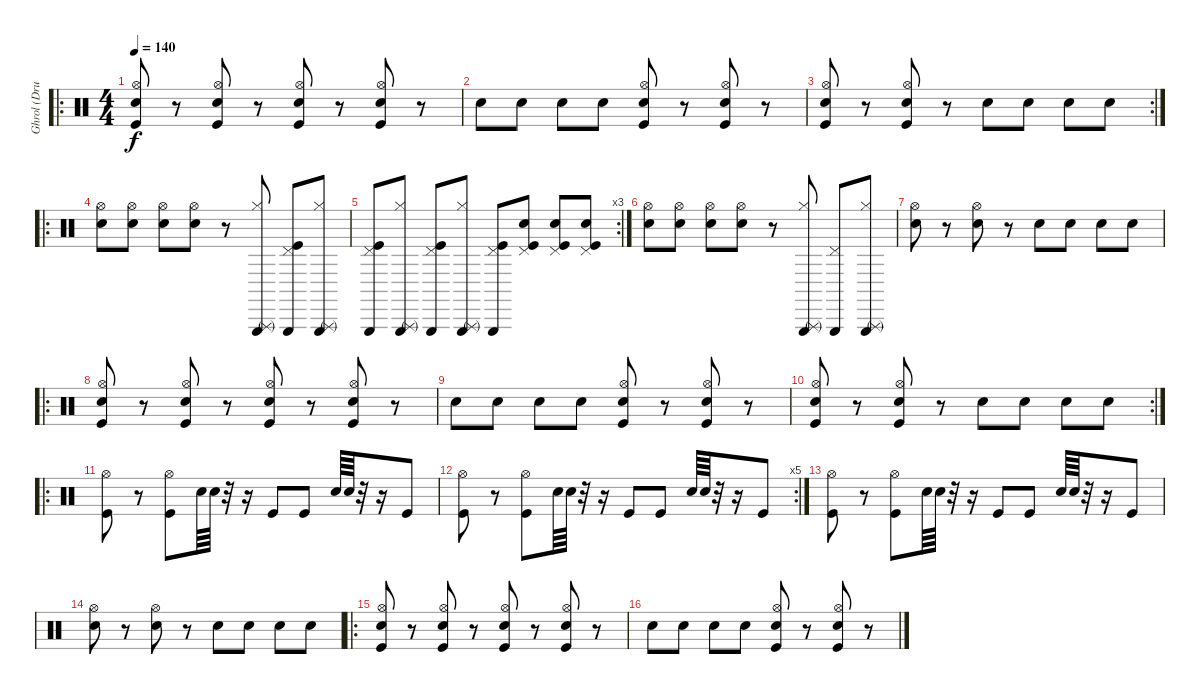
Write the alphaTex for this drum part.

\track ("Ghrol (Drums)" "Ghrol (Dru") {instrument percussion}
\staff {score}
\articulation defaults
\ro
\ts (4 4)
\tempo 140
\clef neutral
\ks c
("Snare (hit) 2" "Hi-Hat (open)" "Kick (hit)").8{dy f} r.8 ("Snare (hit) 2" "Hi-Hat (open)" "Kick (hit)").8 r.8 ("Snare (hit) 2" "Hi-Hat (open)" "Kick (hit)").8 r.8 ("Snare (hit) 2" "Hi-Hat (open)" "Kick (hit)").8 r.8 |
"Snare (hit) 2".8 "Snare (hit) 2".8 "Snare (hit) 2".8 "Snare (hit) 2".8 ("Snare (hit) 2" "Hi-Hat (open)" "Kick (hit)").8 r.8 ("Snare (hit) 2" "Hi-Hat (open)" "Kick (hit)").8 r.8 |
\rc 2
("Snare (hit) 2" "Hi-Hat (open)" "Kick (hit)").8 r.8 ("Snare (hit) 2" "Hi-Hat (open)" "Kick (hit)").8 r.8 "Snare (hit) 2".8 "Snare (hit) 2".8 "Snare (hit) 2".8 "Snare (hit) 2".8 |
\ro
("Snare (hit) 2" "Hi-Hat (open)").8 ("Snare (hit) 2" "Hi-Hat (open)").8 ("Snare (hit) 2" "Hi-Hat (open)").8 ("Snare (hit) 2" "Hi-Hat (open)").8 r.8 ("Triangle (rnute)" "Triangle (hit)" "Hi-Hat (closed)").8 ("Pedal Hi-Hat (hit)" "Triangle (hit)" "Kick (hit)").8 ("Triangle (rnute)" "Triangle (hit)" "Hi-Hat (closed)").8 |
\rc 3
("Pedal Hi-Hat (hit)" "Triangle (hit)" "Kick (hit)").8 ("Triangle (rnute)" "Triangle (hit)" "Hi-Hat (closed)").8 ("Pedal Hi-Hat (hit)" "Triangle (hit)" "Kick (hit)").8 ("Triangle (rnute)" "Triangle (hit)" "Hi-Hat (closed)").8 ("Pedal Hi-Hat (hit)" "Triangle (hit)" "Kick (hit)").8 ("Snare (hit) 2" "Pedal Hi-Hat (hit)" "Kick (hit)").8 ("Snare (hit) 2" "Pedal Hi-Hat (hit)" "Kick (hit)").8 ("Snare (hit) 2" "Pedal Hi-Hat (hit)" "Kick (hit)").8 |
("Snare (hit) 2" "Hi-Hat (open)").8 ("Snare (hit) 2" "Hi-Hat (open)").8 ("Snare (hit) 2" "Hi-Hat (open)").8 ("Snare (hit) 2" "Hi-Hat (open)").8 r.8 ("Triangle (rnute)" "Triangle (hit)" "Hi-Hat (closed)").8 ("Pedal Hi-Hat (hit)" "Triangle (hit)").8 ("Triangle (rnute)" "Triangle (hit)" "Hi-Hat (closed)").8 |
("Snare (hit) 2" "Hi-Hat (open)").8 r.8 ("Snare (hit) 2" "Hi-Hat (open)").8 r.8 "Snare (hit) 2".8 "Snare (hit) 2".8 "Snare (hit) 2".8 "Snare (hit) 2".8 |
\ro
("Snare (hit) 2" "Hi-Hat (open)" "Kick (hit)").8 r.8 ("Snare (hit) 2" "Hi-Hat (open)" "Kick (hit)").8 r.8 ("Snare (hit) 2" "Hi-Hat (open)" "Kick (hit)").8 r.8 ("Snare (hit) 2" "Hi-Hat (open)" "Kick (hit)").8 r.8 |
"Snare (hit) 2".8 "Snare (hit) 2".8 "Snare (hit) 2".8 "Snare (hit) 2".8 ("Snare (hit) 2" "Hi-Hat (open)" "Kick (hit)").8 r.8 ("Snare (hit) 2" "Hi-Hat (open)" "Kick (hit)").8 r.8 |
\rc 2
("Snare (hit) 2" "Hi-Hat (open)" "Kick (hit)").8 r.8 ("Snare (hit) 2" "Hi-Hat (open)" "Kick (hit)").8 r.8 "Snare (hit) 2".8 "Snare (hit) 2".8 "Snare (hit) 2".8 "Snare (hit) 2".8 |
\ro
("Kick (hit)" "Hi-Hat (open)").8 r.8 ("Kick (hit)" "Hi-Hat (open)").8 "Snare (hit) 2".64 "Snare (hit) 2".64 r.32 r.16 "Kick (hit)".8 "Kick (hit)".8 "Snare (hit) 2".64 "Snare (hit) 2".64 r.32 r.16 "Kick (hit)".8 |
\rc 5
("Kick (hit)" "Hi-Hat (open)").8 r.8 ("Kick (hit)" "Hi-Hat (open)").8 "Snare (hit) 2".64 "Snare (hit) 2".64 r.32 r.16 "Kick (hit)".8 "Kick (hit)".8 "Snare (hit) 2".64 "Snare (hit) 2".64 r.32 r.16 "Kick (hit)".8 |
("Kick (hit)" "Hi-Hat (open)").8 r.8 ("Kick (hit)" "Hi-Hat (open)").8 "Snare (hit) 2".64 "Snare (hit) 2".64 r.32 r.16 "Kick (hit)".8 "Kick (hit)".8 "Snare (hit) 2".64 "Snare (hit) 2".64 r.32 r.16 "Kick (hit)".8 |
("Snare (hit) 2" "Hi-Hat (open)").8 r.8 ("Snare (hit) 2" "Hi-Hat (open)").8 r.8 "Snare (hit) 2".8 "Snare (hit) 2".8 "Snare (hit) 2".8 "Snare (hit) 2".8 |
\ro
("Snare (hit) 2" "Hi-Hat (open)" "Kick (hit)").8 r.8 ("Snare (hit) 2" "Hi-Hat (open)" "Kick (hit)").8 r.8 ("Snare (hit) 2" "Hi-Hat (open)" "Kick (hit)").8 r.8 ("Snare (hit) 2" "Hi-Hat (open)" "Kick (hit)").8 r.8 |
"Snare (hit) 2".8 "Snare (hit) 2".8 "Snare (hit) 2".8 "Snare (hit) 2".8 ("Snare (hit) 2" "Hi-Hat (open)" "Kick (hit)").8 r.8 ("Snare (hit) 2" "Hi-Hat (open)" "Kick (hit)").8 r.8
